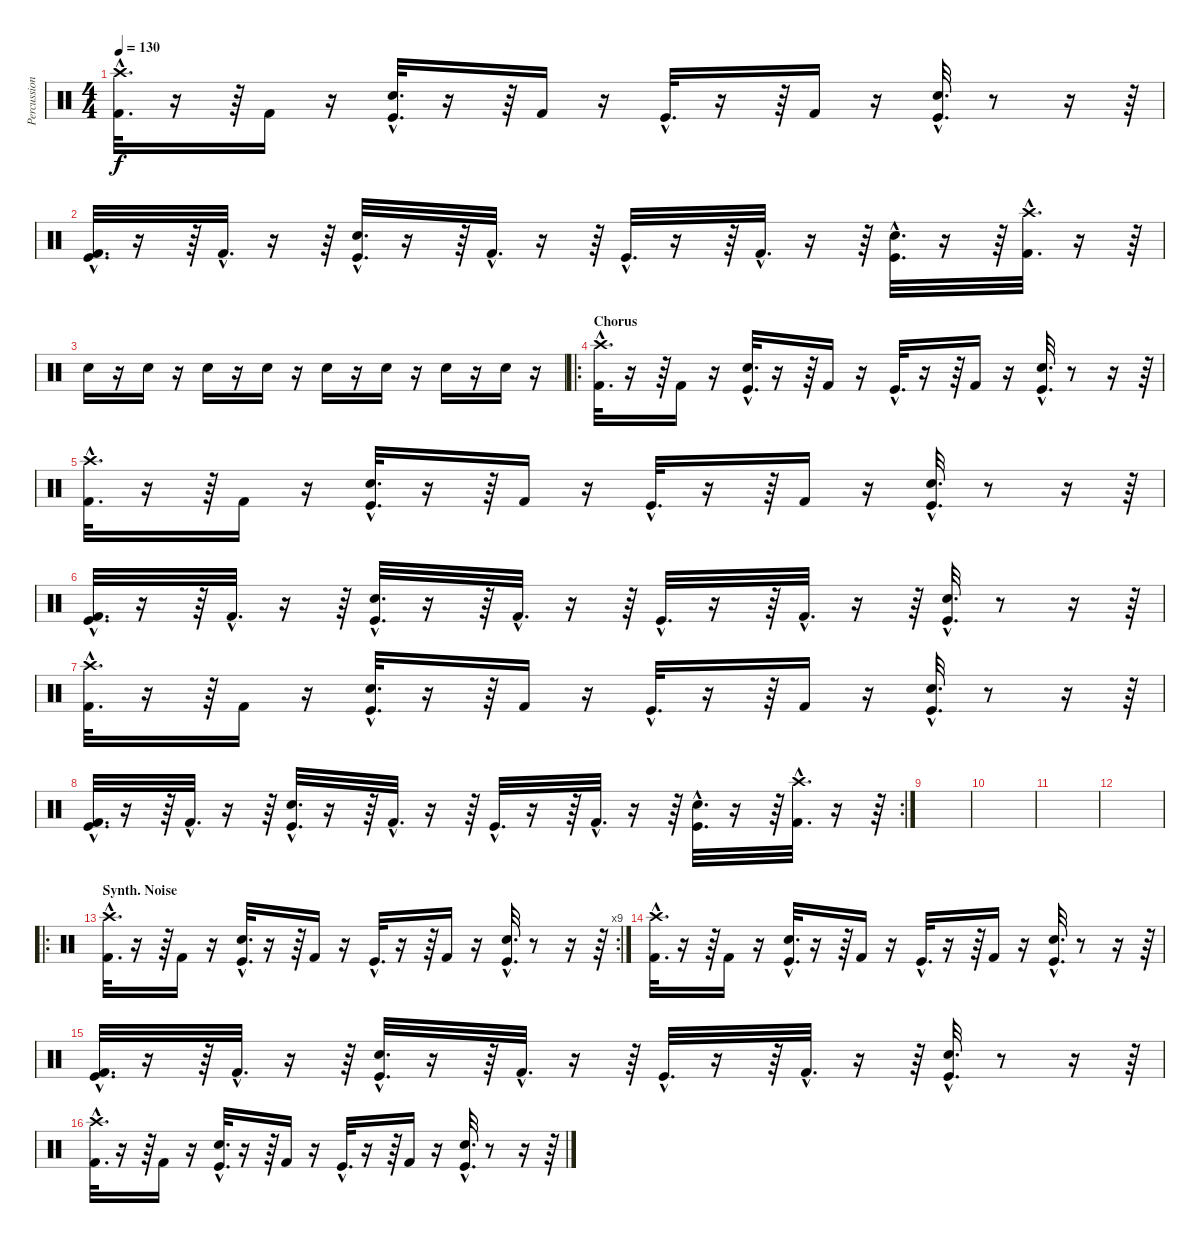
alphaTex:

\track ("Percussion" "Percussion") {instrument percussion}
\staff {score}
\articulation defaults
\ts (4 4)
\tempo 130
\clef neutral
\ks c
("Kick (hit) 2"{hac} "Crash high (hit)"{hac}).32{d dy f} r.16 r.64 "Kick (hit) 2".16 r.16 ("Kick (hit)"{hac} "Snare (hit) 2"{hac}).32{d} r.16 r.64 "Kick (hit) 2".16 r.16 "Kick (hit)"{hac}.32{d} r.16 r.64 "Kick (hit) 2".16 r.16 ("Kick (hit)"{hac} "Snare (hit) 2"{hac}).32{d} r.8 r.16 r.64 |
("Kick (hit)"{hac} "Kick (hit) 2"{hac}).32{d} r.16 r.64 "Kick (hit) 2"{hac}.32{d} r.16 r.64 ("Snare (hit) 2"{hac} "Kick (hit)"{hac}).32{d} r.16 r.64 "Kick (hit) 2"{hac}.32{d} r.16 r.64 "Kick (hit)"{hac}.32{d} r.16 r.64 "Kick (hit) 2"{hac}.32{d} r.16 r.64 ("Snare (hit) 2"{hac} "Kick (hit)"{hac}).32{d} r.16 r.64 ("Kick (hit) 2"{hac} "Crash high (hit)"{hac}).32{d} r.16 r.64 |
"Snare (hit) 2".16 r.16 "Snare (hit) 2".16 r.16 "Snare (hit) 2".16 r.16 "Snare (hit) 2".16 r.16 "Snare (hit) 2".16 r.16 "Snare (hit) 2".16 r.16 "Snare (hit) 2".16 r.16 "Snare (hit) 2".16 r.16 |
\ro
\section ("" "Chorus")
("Kick (hit) 2"{hac} "Crash high (hit)"{hac}).32{d} r.16 r.64 "Kick (hit) 2".16 r.16 ("Kick (hit)"{hac} "Snare (hit) 2"{hac}).32{d} r.16 r.64 "Kick (hit) 2".16 r.16 "Kick (hit)"{hac}.32{d} r.16 r.64 "Kick (hit) 2".16 r.16 ("Kick (hit)"{hac} "Snare (hit) 2"{hac}).32{d} r.8 r.16 r.64 |
("Kick (hit) 2"{hac} "Crash high (hit)"{hac}).32{d} r.16 r.64 "Kick (hit) 2".16 r.16 ("Kick (hit)"{hac} "Snare (hit) 2"{hac}).32{d} r.16 r.64 "Kick (hit) 2".16 r.16 "Kick (hit)"{hac}.32{d} r.16 r.64 "Kick (hit) 2".16 r.16 ("Kick (hit)"{hac} "Snare (hit) 2"{hac}).32{d} r.8 r.16 r.64 |
("Kick (hit)"{hac} "Kick (hit) 2"{hac}).32{d} r.16 r.64 "Kick (hit) 2"{hac}.32{d} r.16 r.64 ("Snare (hit) 2"{hac} "Kick (hit)"{hac}).32{d} r.16 r.64 "Kick (hit) 2"{hac}.32{d} r.16 r.64 "Kick (hit)"{hac}.32{d} r.16 r.64 "Kick (hit) 2"{hac}.32{d} r.16 r.64 ("Snare (hit) 2"{hac} "Kick (hit)"{hac}).32{d} r.8 r.16 r.64 |
("Kick (hit) 2"{hac} "Crash high (hit)"{hac}).32{d} r.16 r.64 "Kick (hit) 2".16 r.16 ("Kick (hit)"{hac} "Snare (hit) 2"{hac}).32{d} r.16 r.64 "Kick (hit) 2".16 r.16 "Kick (hit)"{hac}.32{d} r.16 r.64 "Kick (hit) 2".16 r.16 ("Kick (hit)"{hac} "Snare (hit) 2"{hac}).32{d} r.8 r.16 r.64 |
\rc 2
("Kick (hit)"{hac} "Kick (hit) 2"{hac}).32{d} r.16 r.64 "Kick (hit) 2"{hac}.32{d} r.16 r.64 ("Snare (hit) 2"{hac} "Kick (hit)"{hac}).32{d} r.16 r.64 "Kick (hit) 2"{hac}.32{d} r.16 r.64 "Kick (hit)"{hac}.32{d} r.16 r.64 "Kick (hit) 2"{hac}.32{d} r.16 r.64 ("Snare (hit) 2"{hac} "Kick (hit)"{hac}).32{d} r.16 r.64 ("Kick (hit) 2"{hac} "Crash high (hit)"{hac}).32{d} r.16 r.64 |
|
|
|
|
\ro
\rc 9
\section ("" "Synth. Noise")
("Kick (hit) 2"{hac} "Crash high (hit)"{hac}).32{d} r.16 r.64 "Kick (hit) 2".16 r.16 ("Kick (hit)"{hac} "Snare (hit) 2"{hac}).32{d} r.16 r.64 "Kick (hit) 2".16 r.16 "Kick (hit)"{hac}.32{d} r.16 r.64 "Kick (hit) 2".16 r.16 ("Kick (hit)"{hac} "Snare (hit) 2"{hac}).32{d} r.8 r.16 r.64 |
\section ("" "")
("Kick (hit) 2"{hac} "Crash high (hit)"{hac}).32{d} r.16 r.64 "Kick (hit) 2".16 r.16 ("Kick (hit)"{hac} "Snare (hit) 2"{hac}).32{d} r.16 r.64 "Kick (hit) 2".16 r.16 "Kick (hit)"{hac}.32{d} r.16 r.64 "Kick (hit) 2".16 r.16 ("Kick (hit)"{hac} "Snare (hit) 2"{hac}).32{d} r.8 r.16 r.64 |
("Kick (hit)"{hac} "Kick (hit) 2"{hac}).32{d} r.16 r.64 "Kick (hit) 2"{hac}.32{d} r.16 r.64 ("Snare (hit) 2"{hac} "Kick (hit)"{hac}).32{d} r.16 r.64 "Kick (hit) 2"{hac}.32{d} r.16 r.64 "Kick (hit)"{hac}.32{d} r.16 r.64 "Kick (hit) 2"{hac}.32{d} r.16 r.64 ("Snare (hit) 2"{hac} "Kick (hit)"{hac}).32{d} r.8 r.16 r.64 |
("Kick (hit) 2"{hac} "Crash high (hit)"{hac}).32{d} r.16 r.64 "Kick (hit) 2".16 r.16 ("Kick (hit)"{hac} "Snare (hit) 2"{hac}).32{d} r.16 r.64 "Kick (hit) 2".16 r.16 "Kick (hit)"{hac}.32{d} r.16 r.64 "Kick (hit) 2".16 r.16 ("Kick (hit)"{hac} "Snare (hit) 2"{hac}).32{d} r.8 r.16 r.64
